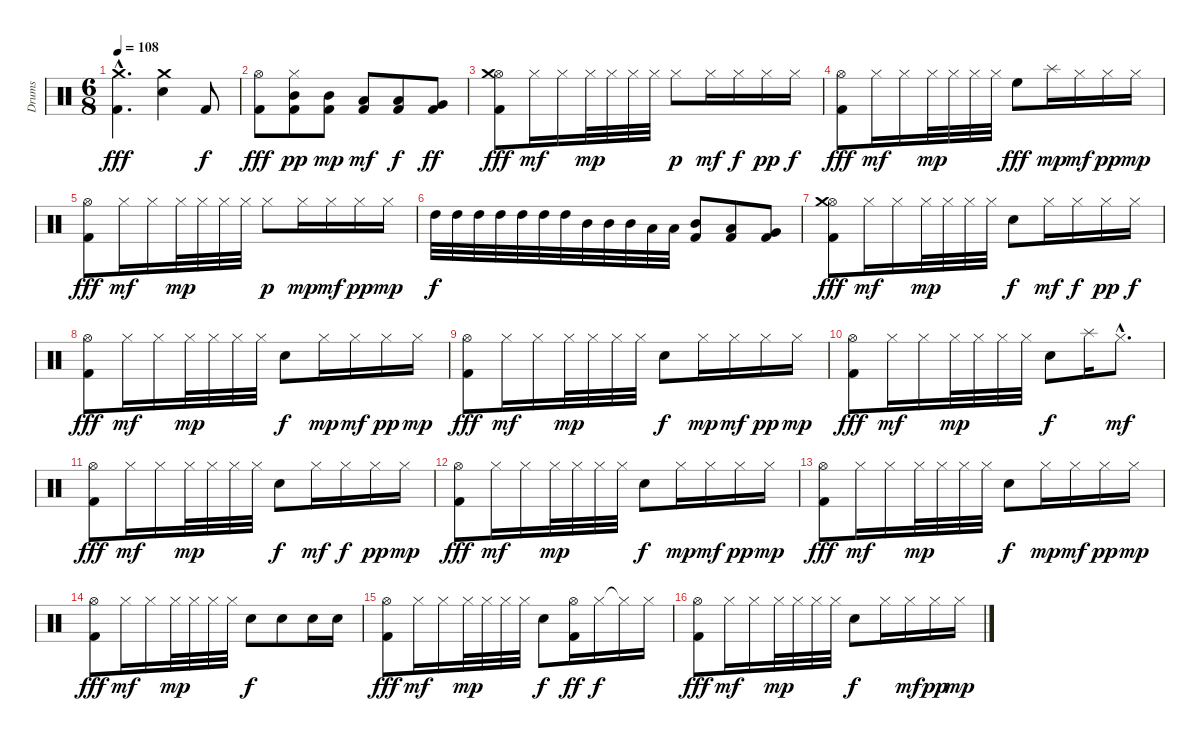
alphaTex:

\track ("Drums" "Drums") {instrument percussion}
\staff {score}
\articulation defaults
\ts (6 8)
\tempo 108
\clef neutral
\ks c
("Crash medium (hit)"{hac} "Kick (hit) 2"{hac}).4{d dy fff} ("Crash medium (hit)" "Snare (hit) 2").4 "Kick (hit) 2".8{dy f} |
("Hi-Hat (open)" "Kick (hit) 2").8{dy fff} ("Hi-Hat (closed)" "Mid Tom (hit)" "Kick (hit) 2").8{dy pp} ("Mid Tom (hit)" "Kick (hit) 2").8{dy mp} ("Low Tom (hit)" "Kick (hit) 2").8{dy mf} ("Low Tom (hit)" "Kick (hit) 2").8{dy f} ("Very Low Tom (hit)" "Kick (hit) 2").8{dy ff} |
("Hi-Hat (open)" "Crash medium (hit)" "Kick (hit) 2").8{dy fff} "Hi-Hat (closed)".16{dy mf} "Hi-Hat (closed)".16 "Hi-Hat (closed)".32{dy mp} "Hi-Hat (closed)".32 "Hi-Hat (closed)".32 "Hi-Hat (closed)".32 "Hi-Hat (closed)".8{dy p} "Hi-Hat (closed)".16{dy mf} "Hi-Hat (closed)".16{dy f} "Hi-Hat (closed)".16{dy pp} "Hi-Hat (closed)".16{dy f} |
("Hi-Hat (open)" "Kick (hit) 2").8{dy fff} "Hi-Hat (closed)".16{dy mf} "Hi-Hat (closed)".16 "Hi-Hat (closed)".32{dy mp} "Hi-Hat (closed)".32 "Hi-Hat (closed)".32 "Hi-Hat (closed)".32 "High Floor Tom (hit)".8{dy fff} "Splash (hit)".16{dy mp} "Hi-Hat (closed)".16{dy mf} "Hi-Hat (closed)".16{dy pp} "Hi-Hat (closed)".16{dy mp} |
("Hi-Hat (open)" "Kick (hit) 2").8{dy fff} "Hi-Hat (closed)".16{dy mf} "Hi-Hat (closed)".16 "Hi-Hat (closed)".32{dy mp} "Hi-Hat (closed)".32 "Hi-Hat (closed)".32 "Hi-Hat (closed)".32 "Hi-Hat (closed)".8{dy p} "Hi-Hat (closed)".16{dy mp} "Hi-Hat (closed)".16{dy mf} "Hi-Hat (closed)".16{dy pp} "Hi-Hat (closed)".16{dy mp} |
"High Tom (hit)".32{dy f} "High Tom (hit)".32 "High Tom (hit)".32 "High Tom (hit)".32 "High Tom (hit)".32 "High Tom (hit)".32 "High Tom (hit)".32 "Mid Tom (hit)".32 "Mid Tom (hit)".32 "Mid Tom (hit)".32 "Low Tom (hit)".32 "Low Tom (hit)".32 ("Mid Tom (hit)" "Kick (hit) 2").8 ("Low Tom (hit)" "Kick (hit) 2").8 ("Very Low Tom (hit)" "Kick (hit) 2").8 |
("Hi-Hat (open)" "Crash medium (hit)" "Kick (hit) 2").8{dy fff} "Hi-Hat (closed)".16{dy mf} "Hi-Hat (closed)".16 "Hi-Hat (closed)".32{dy mp} "Hi-Hat (closed)".32 "Hi-Hat (closed)".32 "Hi-Hat (closed)".32 "Snare (hit) 2".8{dy f} "Hi-Hat (closed)".16{dy mf} "Hi-Hat (closed)".16{dy f} "Hi-Hat (closed)".16{dy pp} "Hi-Hat (closed)".16{dy f} |
("Hi-Hat (open)" "Kick (hit) 2").8{dy fff} "Hi-Hat (closed)".16{dy mf} "Hi-Hat (closed)".16 "Hi-Hat (closed)".32{dy mp} "Hi-Hat (closed)".32 "Hi-Hat (closed)".32 "Hi-Hat (closed)".32 "Snare (hit) 2".8{dy f} "Hi-Hat (closed)".16{dy mp} "Hi-Hat (closed)".16{dy mf} "Hi-Hat (closed)".16{dy pp} "Hi-Hat (closed)".16{dy mp} |
("Hi-Hat (open)" "Kick (hit) 2").8{dy fff} "Hi-Hat (closed)".16{dy mf} "Hi-Hat (closed)".16 "Hi-Hat (closed)".32{dy mp} "Hi-Hat (closed)".32 "Hi-Hat (closed)".32 "Hi-Hat (closed)".32 "Snare (hit) 2".8{dy f} "Hi-Hat (closed)".16{dy mp} "Hi-Hat (closed)".16{dy mf} "Hi-Hat (closed)".16{dy pp} "Hi-Hat (closed)".16{dy mp} |
("Hi-Hat (open)" "Kick (hit) 2").8{dy fff} "Hi-Hat (closed)".16{dy mf} "Hi-Hat (closed)".16 "Hi-Hat (closed)".32{dy mp} "Hi-Hat (closed)".32 "Hi-Hat (closed)".32 "Hi-Hat (closed)".32 "Snare (hit) 2".8{dy f} "Splash (hit)".16 "Hi-Hat (closed)"{hac}.8{d dy mf} |
("Hi-Hat (open)" "Kick (hit) 2").8{dy fff} "Hi-Hat (closed)".16{dy mf} "Hi-Hat (closed)".16 "Hi-Hat (closed)".32{dy mp} "Hi-Hat (closed)".32 "Hi-Hat (closed)".32 "Hi-Hat (closed)".32 "Snare (hit) 2".8{dy f} "Hi-Hat (closed)".16{dy mf} "Hi-Hat (closed)".16{dy f} "Hi-Hat (closed)".16{dy pp} "Hi-Hat (closed)".16{dy mp} |
("Hi-Hat (open)" "Kick (hit) 2").8{dy fff} "Hi-Hat (closed)".16{dy mf} "Hi-Hat (closed)".16 "Hi-Hat (closed)".32{dy mp} "Hi-Hat (closed)".32 "Hi-Hat (closed)".32 "Hi-Hat (closed)".32 "Snare (hit) 2".8{dy f} "Hi-Hat (closed)".16{dy mp} "Hi-Hat (closed)".16{dy mf} "Hi-Hat (closed)".16{dy pp} "Hi-Hat (closed)".16{dy mp} |
("Hi-Hat (open)" "Kick (hit) 2").8{dy fff} "Hi-Hat (closed)".16{dy mf} "Hi-Hat (closed)".16 "Hi-Hat (closed)".32{dy mp} "Hi-Hat (closed)".32 "Hi-Hat (closed)".32 "Hi-Hat (closed)".32 "Snare (hit) 2".8{dy f} "Hi-Hat (closed)".16{dy mp} "Hi-Hat (closed)".16{dy mf} "Hi-Hat (closed)".16{dy pp} "Hi-Hat (closed)".16{dy mp} |
("Hi-Hat (open)" "Kick (hit) 2").8{dy fff} "Hi-Hat (closed)".16{dy mf} "Hi-Hat (closed)".16 "Hi-Hat (closed)".32{dy mp} "Hi-Hat (closed)".32 "Hi-Hat (closed)".32 "Hi-Hat (closed)".32 "Snare (hit) 2".8{dy f} "Snare (hit) 2".8 "Snare (hit) 2".16 "Snare (hit) 2".16 |
("Hi-Hat (open)" "Kick (hit) 2").8{dy fff} "Hi-Hat (closed)".16{dy mf} "Hi-Hat (closed)".16 "Hi-Hat (closed)".32{dy mp} "Hi-Hat (closed)".32 "Hi-Hat (closed)".32 "Hi-Hat (closed)".32 "Snare (hit) 2".8{dy f} ("Hi-Hat (open)" "Kick (hit) 2").16{dy ff} "Hi-Hat (closed)".16{dy f} "Hi-Hat (closed)"{t}.16 "Hi-Hat (closed)".16 |
("Hi-Hat (open)" "Kick (hit) 2").8{dy fff} "Hi-Hat (closed)".16{dy mf} "Hi-Hat (closed)".16 "Hi-Hat (closed)".32{dy mp} "Hi-Hat (closed)".32 "Hi-Hat (closed)".32 "Hi-Hat (closed)".32 "Snare (hit) 2".8{dy f} "Hi-Hat (closed)".16 "Hi-Hat (closed)".16{dy mf} "Hi-Hat (closed)".16{dy pp} "Hi-Hat (closed)".16{dy mp}
